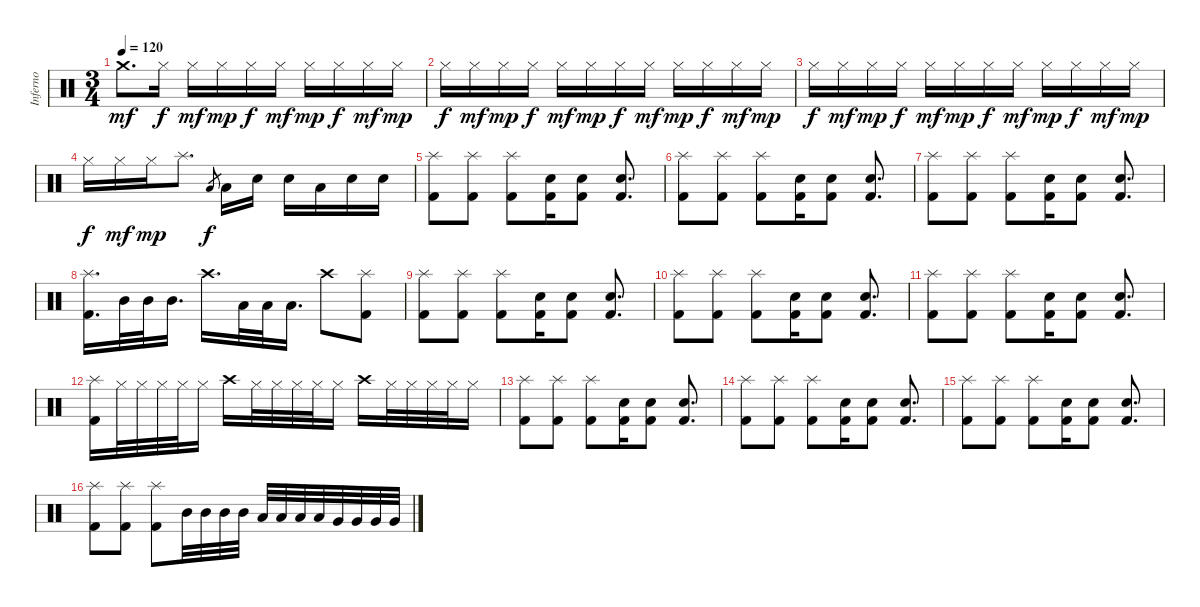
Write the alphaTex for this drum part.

\track ("Inferno" "Inferno") {instrument percussion}
\staff {score}
\articulation defaults
\ts (3 4)
\tempo 120
\clef neutral
\ks c "Crash medium (hit)".8{d dy mf} "Hi-Hat (closed)".16{dy f} "Hi-Hat (closed)".16{dy mf} "Hi-Hat (closed)".16{dy mp} "Hi-Hat (closed)".16{dy f} "Hi-Hat (closed)".16{dy mf} "Hi-Hat (closed)".16{dy mp} "Hi-Hat (closed)".16{dy f} "Hi-Hat (closed)".16{dy mf} "Hi-Hat (closed)".16{dy mp}
|
"Hi-Hat (closed)".16{dy f} "Hi-Hat (closed)".16{dy mf} "Hi-Hat (closed)".16{dy mp} "Hi-Hat (closed)".16{dy f} "Hi-Hat (closed)".16{dy mf} "Hi-Hat (closed)".16{dy mp} "Hi-Hat (closed)".16{dy f} "Hi-Hat (closed)".16{dy mf} "Hi-Hat (closed)".16{dy mp} "Hi-Hat (closed)".16{dy f} "Hi-Hat (closed)".16{dy mf} "Hi-Hat (closed)".16{dy mp} |
"Hi-Hat (closed)".16{dy f} "Hi-Hat (closed)".16{dy mf} "Hi-Hat (closed)".16{dy mp} "Hi-Hat (closed)".16{dy f} "Hi-Hat (closed)".16{dy mf} "Hi-Hat (closed)".16{dy mp} "Hi-Hat (closed)".16{dy f} "Hi-Hat (closed)".16{dy mf} "Hi-Hat (closed)".16{dy mp} "Hi-Hat (closed)".16{dy f} "Hi-Hat (closed)".16{dy mf} "Hi-Hat (closed)".16{dy mp} |
"Hi-Hat (closed)".16{dy f} "Hi-Hat (closed)".16{dy mf} "Hi-Hat (closed)".16{dy mp} "Splash (hit)".8{d} "Low Tom (hit)".8{gr dy f} "Low Tom (hit)".16 "Electric Snare (hit)".16 "Electric Snare (hit)".16 "Low Tom (hit)".16 "Electric Snare (hit)".16 "Electric Snare (hit)".16 |
("Splash (hit)" "Kick (hit) 2").8 ("Splash (hit)" "Kick (hit) 2").8 ("Splash (hit)" "Kick (hit) 2").8 ("Electric Snare (hit)" "Kick (hit) 2").16 ("Electric Snare (hit)" "Kick (hit) 2").8 ("Electric Snare (hit)" "Kick (hit) 2").8{d} |
("Splash (hit)" "Kick (hit) 2").8 ("Splash (hit)" "Kick (hit) 2").8 ("Splash (hit)" "Kick (hit) 2").8 ("Electric Snare (hit)" "Kick (hit) 2").16 ("Electric Snare (hit)" "Kick (hit) 2").8 ("Electric Snare (hit)" "Kick (hit) 2").8{d} |
("Splash (hit)" "Kick (hit) 2").8 ("Splash (hit)" "Kick (hit) 2").8 ("Splash (hit)" "Kick (hit) 2").8 ("Electric Snare (hit)" "Kick (hit) 2").16 ("Electric Snare (hit)" "Kick (hit) 2").8 ("Electric Snare (hit)" "Kick (hit) 2").8{d} |
("Splash (hit)" "Kick (hit) 2").16{d} "Mid Tom (hit)".32 "Mid Tom (hit)".32 "Mid Tom (hit)".16{d} "Crash high (hit)".16{d} "Low Tom (hit)".32 "Low Tom (hit)".32 "Low Tom (hit)".16{d} "Crash high (hit)".8 ("Splash (hit)" "Kick (hit) 2").8 |
("Splash (hit)" "Kick (hit) 2").8 ("Splash (hit)" "Kick (hit) 2").8 ("Splash (hit)" "Kick (hit) 2").8 ("Electric Snare (hit)" "Kick (hit) 2").16 ("Electric Snare (hit)" "Kick (hit) 2").8 ("Electric Snare (hit)" "Kick (hit) 2").8{d} |
("Splash (hit)" "Kick (hit) 2").8 ("Splash (hit)" "Kick (hit) 2").8 ("Splash (hit)" "Kick (hit) 2").8 ("Electric Snare (hit)" "Kick (hit) 2").16 ("Electric Snare (hit)" "Kick (hit) 2").8 ("Electric Snare (hit)" "Kick (hit) 2").8{d} |
("Splash (hit)" "Kick (hit) 2").8 ("Splash (hit)" "Kick (hit) 2").8 ("Splash (hit)" "Kick (hit) 2").8 ("Electric Snare (hit)" "Kick (hit) 2").16 ("Electric Snare (hit)" "Kick (hit) 2").8 ("Electric Snare (hit)" "Kick (hit) 2").8{d} |
("Splash (hit)" "Kick (hit) 2").16 "Hi-Hat (closed)".32 "Hi-Hat (closed)".32 "Hi-Hat (closed)".32 "Hi-Hat (closed)".32 "Hi-Hat (closed)".16 "Crash high (hit)".16 "Hi-Hat (closed)".32 "Hi-Hat (closed)".32 "Hi-Hat (closed)".32 "Hi-Hat (closed)".32 "Hi-Hat (closed)".16 "Crash high (hit)".16 "Hi-Hat (closed)".32 "Hi-Hat (closed)".32 "Hi-Hat (closed)".32 "Hi-Hat (closed)".32 "Hi-Hat (closed)".16 |
("Splash (hit)" "Kick (hit) 2").8 ("Splash (hit)" "Kick (hit) 2").8 ("Splash (hit)" "Kick (hit) 2").8 ("Electric Snare (hit)" "Kick (hit) 2").16 ("Electric Snare (hit)" "Kick (hit) 2").8 ("Electric Snare (hit)" "Kick (hit) 2").8{d} |
("Splash (hit)" "Kick (hit) 2").8 ("Splash (hit)" "Kick (hit) 2").8 ("Splash (hit)" "Kick (hit) 2").8 ("Electric Snare (hit)" "Kick (hit) 2").16 ("Electric Snare (hit)" "Kick (hit) 2").8 ("Electric Snare (hit)" "Kick (hit) 2").8{d} |
("Splash (hit)" "Kick (hit) 2").8 ("Splash (hit)" "Kick (hit) 2").8 ("Splash (hit)" "Kick (hit) 2").8 ("Electric Snare (hit)" "Kick (hit) 2").16 ("Electric Snare (hit)" "Kick (hit) 2").8 ("Electric Snare (hit)" "Kick (hit) 2").8{d} |
("Splash (hit)" "Kick (hit) 2").8 ("Splash (hit)" "Kick (hit) 2").8 ("Splash (hit)" "Kick (hit) 2").8 "Mid Tom (hit)".32 "Mid Tom (hit)".32 "Mid Tom (hit)".32 "Mid Tom (hit)".32 "Low Tom (hit)".32 "Low Tom (hit)".32 "Low Tom (hit)".32 "Low Tom (hit)".32 "Very Low Tom (hit)".32 "Very Low Tom (hit)".32 "Very Low Tom (hit)".32 "Very Low Tom (hit)".32
